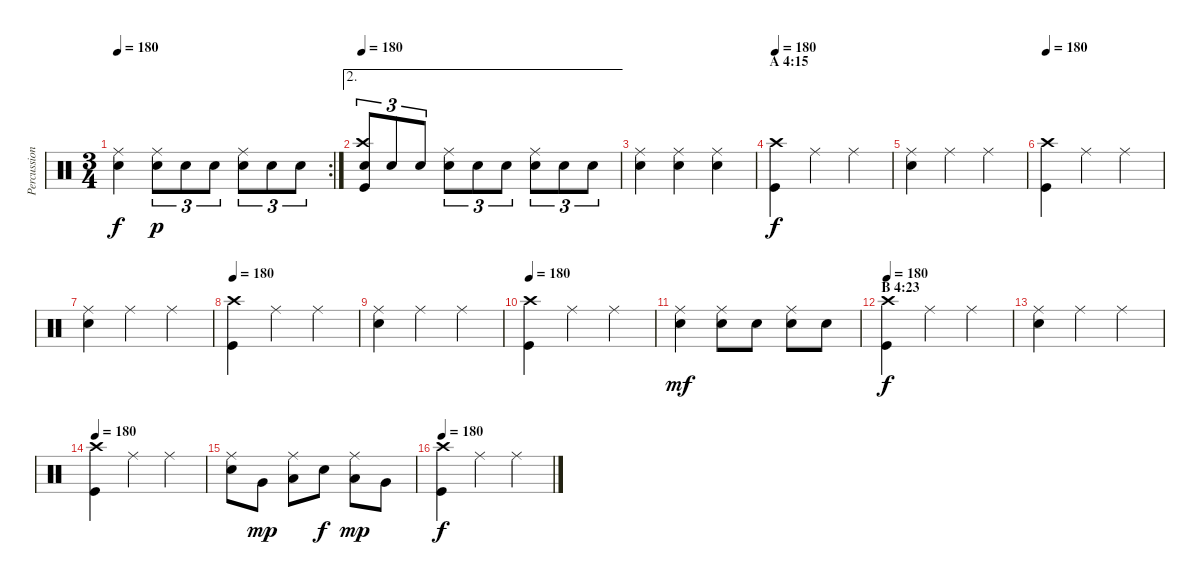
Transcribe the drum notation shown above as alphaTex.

\track ("Percussion" "Percussion") {instrument percussion}
\staff {score}
\articulation defaults
\rc 2
\ts (3 4)
\tempo 180
\clef neutral
\ks c
("Ride (middle)" "Electric Snare (hit)").4{dy f} ("Ride (middle)" "Snare (hit) 2").8{tu (3 2) dy p} "Snare (hit) 2".8{tu (3 2)} "Snare (hit) 2".8{tu (3 2)} ("Ride (middle)" "Snare (hit) 2").8{tu (3 2)} "Snare (hit) 2".8{tu (3 2)} "Snare (hit) 2".8{tu (3 2)} |
\ae 2
\tempo 180
("Crash high (hit)" "Snare (hit) 2" "Kick (hit)").8{tu (3 2)} "Snare (hit) 2".8{tu (3 2)} "Snare (hit) 2".8{tu (3 2)} ("Ride (middle)" "Snare (hit) 2").8{tu (3 2)} "Snare (hit) 2".8{tu (3 2)} "Snare (hit) 2".8{tu (3 2)} ("Ride (middle)" "Snare (hit) 2").8{tu (3 2)} "Snare (hit) 2".8{tu (3 2)} "Snare (hit) 2".8{tu (3 2)} |
("Ride (middle)" "Snare (hit) 2").4 ("Ride (middle)" "Snare (hit) 2").4 ("Ride (middle)" "Snare (hit) 2").4 |
\section ("" "A 4:15")
\tempo 180
("Crash high (hit)" "Kick (hit)").4{dy f} "Ride (middle)".4 "Ride (middle)".4 |
("Ride (middle)" "Electric Snare (hit)").4 "Ride (middle)".4 "Ride (middle)".4 |
\tempo 180
("Crash high (hit)" "Kick (hit)").4 "Ride (middle)".4 "Ride (middle)".4 |
("Ride (middle)" "Electric Snare (hit)").4 "Ride (middle)".4 "Ride (middle)".4 |
\tempo 180
("Crash high (hit)" "Kick (hit)").4 "Ride (middle)".4 "Ride (middle)".4 |
("Ride (middle)" "Electric Snare (hit)").4 "Ride (middle)".4 "Ride (middle)".4 |
\tempo 180
("Crash high (hit)" "Kick (hit)").4 "Ride (middle)".4 "Ride (middle)".4 |
("Ride (middle)" "Electric Snare (hit)").4{dy mf} ("Ride (middle)" "Electric Snare (hit)").8 "Electric Snare (hit)".8 ("Ride (middle)" "Electric Snare (hit)").8 "Electric Snare (hit)".8 |
\section ("" "B 4:23")
\tempo 180
("Crash high (hit)" "Kick (hit)").4{dy f} "Ride (middle)".4 "Ride (middle)".4 |
("Ride (middle)" "Electric Snare (hit)").4 "Ride (middle)".4 "Ride (middle)".4 |
\tempo 180
("Crash high (hit)" "Kick (hit)").4 "Ride (middle)".4 "Ride (middle)".4 |
("Ride (middle)" "Electric Snare (hit)").8 "Very Low Tom (hit)".8{dy mp} ("Ride (middle)" "Low Floor Tom (hit)").8 "Electric Snare (hit)".8{dy f} ("Ride (middle)" "Low Tom (hit)").8{dy mp} "Very Low Tom (hit)".8 |
\tempo 180
("Crash high (hit)" "Kick (hit)").4{dy f} "Ride (middle)".4 "Ride (middle)".4
